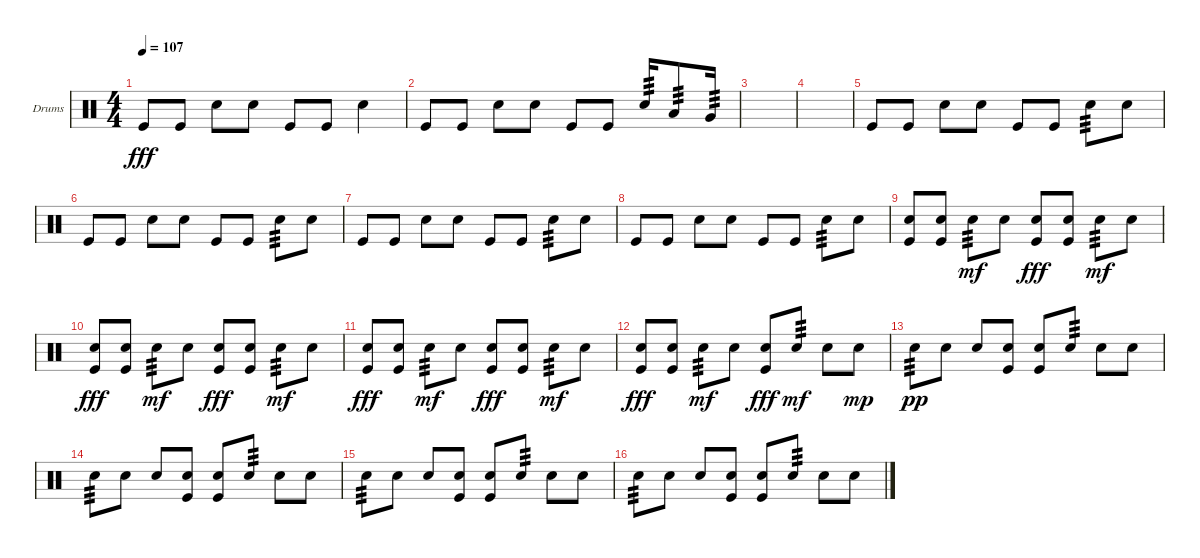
\defaultSystemsLayout 4
\bracketExtendMode groupsimilarinstruments
\firstSystemTrackNameOrientation horizontal
\otherSystemsTrackNameOrientation horizontal
\track ("Helders" "Drums") {instrument percussion}
\staff {score}
\articulation defaults
\ts (4 4)
\tempo 107
\clef neutral
\ks c "Kick (hit)".8{dy fff} "Kick (hit)".8 "Snare (hit) 2".8 "Snare (hit) 2".8 "Kick (hit)".8 "Kick (hit)".8 "Snare (hit) 2".4
|
"Kick (hit)".8 "Kick (hit)".8 "Snare (hit) 2".8 "Snare (hit) 2".8 "Kick (hit)".8 "Kick (hit)".8 "Snare (hit) 2".16{tp 3} "Low Tom (hit)".8{tp 3} "Very Low Tom (hit)".16{tp 3} |
|
|
"Kick (hit)".8 "Kick (hit)".8 "Snare (hit) 2".8 "Snare (hit) 2".8 "Kick (hit)".8 "Kick (hit)".8 "Snare (hit) 2".8{tp 3} "Snare (hit) 2".8 |
"Kick (hit)".8 "Kick (hit)".8 "Snare (hit) 2".8 "Snare (hit) 2".8 "Kick (hit)".8 "Kick (hit)".8 "Snare (hit) 2".8{tp 3} "Snare (hit) 2".8 |
"Kick (hit)".8 "Kick (hit)".8 "Snare (hit) 2".8 "Snare (hit) 2".8 "Kick (hit)".8 "Kick (hit)".8 "Snare (hit) 2".8{tp 3} "Snare (hit) 2".8 |
"Kick (hit)".8 "Kick (hit)".8 "Snare (hit) 2".8 "Snare (hit) 2".8 "Kick (hit)".8 "Kick (hit)".8 "Snare (hit) 2".8{tp 3} "Snare (hit) 2".8 |
("Snare (hit) 2" "Kick (hit)").8 ("Kick (hit)" "Snare (hit) 2").8 "Snare (hit) 2".8{tp 3 dy mf} "Snare (hit) 2".8 ("Kick (hit)" "Snare (hit) 2").8{dy fff} ("Kick (hit)" "Snare (hit) 2").8 "Snare (hit) 2".8{tp 3 dy mf} "Snare (hit) 2".8 |
("Snare (hit) 2" "Kick (hit)").8{dy fff} ("Kick (hit)" "Snare (hit) 2").8 "Snare (hit) 2".8{tp 3 dy mf} "Snare (hit) 2".8 ("Kick (hit)" "Snare (hit) 2").8{dy fff} ("Kick (hit)" "Snare (hit) 2").8 "Snare (hit) 2".8{tp 3 dy mf} "Snare (hit) 2".8 |
("Snare (hit) 2" "Kick (hit)").8{dy fff} ("Kick (hit)" "Snare (hit) 2").8 "Snare (hit) 2".8{tp 3 dy mf} "Snare (hit) 2".8 ("Kick (hit)" "Snare (hit) 2").8{dy fff} ("Kick (hit)" "Snare (hit) 2").8 "Snare (hit) 2".8{tp 3 dy mf} "Snare (hit) 2".8 |
("Snare (hit) 2" "Kick (hit)").8{dy fff} ("Kick (hit)" "Snare (hit) 2").8 "Snare (hit) 2".8{tp 3 dy mf} "Snare (hit) 2".8 ("Kick (hit)" "Snare (hit) 2").8{dy fff} "Snare (hit) 2".8{tp 3 dy mf} "Snare (hit) 2".8 "Snare (hit) 2".8{dy mp} |
"Snare (hit) 2".8{tp 3 dy pp} "Snare (hit) 2".8 "Snare (hit) 2".8 ("Snare (hit) 2" "Kick (hit)").8 ("Snare (hit) 2" "Kick (hit)").8 "Snare (hit) 2".8{tp 3} "Snare (hit) 2".8 "Snare (hit) 2".8 |
"Snare (hit) 2".8{tp 3} "Snare (hit) 2".8 "Snare (hit) 2".8 ("Snare (hit) 2" "Kick (hit)").8 ("Snare (hit) 2" "Kick (hit)").8 "Snare (hit) 2".8{tp 3} "Snare (hit) 2".8 "Snare (hit) 2".8 |
"Snare (hit) 2".8{tp 3} "Snare (hit) 2".8 "Snare (hit) 2".8 ("Snare (hit) 2" "Kick (hit)").8 ("Snare (hit) 2" "Kick (hit)").8 "Snare (hit) 2".8{tp 3} "Snare (hit) 2".8 "Snare (hit) 2".8 |
"Snare (hit) 2".8{tp 3} "Snare (hit) 2".8 "Snare (hit) 2".8 ("Snare (hit) 2" "Kick (hit)").8 ("Snare (hit) 2" "Kick (hit)").8 "Snare (hit) 2".8{tp 3} "Snare (hit) 2".8 "Snare (hit) 2".8
